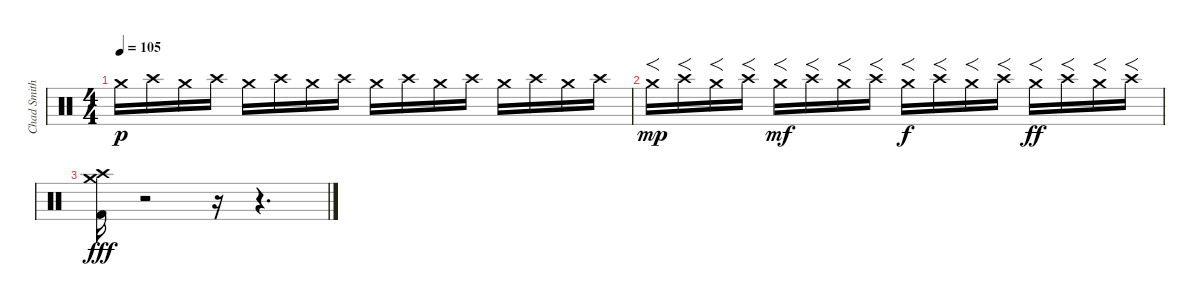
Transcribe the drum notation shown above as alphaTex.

\track ("Chad Smith" "Chad Smith") {instrument percussion}
\staff {score}
\articulation defaults
\ts (4 4)
\tempo 105
\clef neutral
\ks c "Crash medium (hit)".16{dy p} "Crash high (hit)".16 "Crash medium (hit)".16 "Crash high (hit)".16 "Crash medium (hit)".16 "Crash high (hit)".16 "Crash medium (hit)".16 "Crash high (hit)".16 "Crash medium (hit)".16 "Crash high (hit)".16 "Crash medium (hit)".16 "Crash high (hit)".16 "Crash medium (hit)".16 "Crash high (hit)".16 "Crash medium (hit)".16 "Crash high (hit)".16
|
"Crash medium (hit)".16{f dy mp} "Crash high (hit)".16{f} "Crash medium (hit)".16{f} "Crash high (hit)".16{f} "Crash medium (hit)".16{f dy mf} "Crash high (hit)".16{f} "Crash medium (hit)".16{f} "Crash high (hit)".16{f} "Crash medium (hit)".16{f dy f} "Crash high (hit)".16{f} "Crash medium (hit)".16{f} "Crash high (hit)".16{f} "Crash medium (hit)".16{f dy ff} "Crash high (hit)".16{f} "Crash medium (hit)".16{f} "Crash high (hit)".16{f} |
("Crash high (hit)" "Crash medium (hit)" "Kick (hit) 2").16{dy fff} r.2 r.16 r.4{d}
